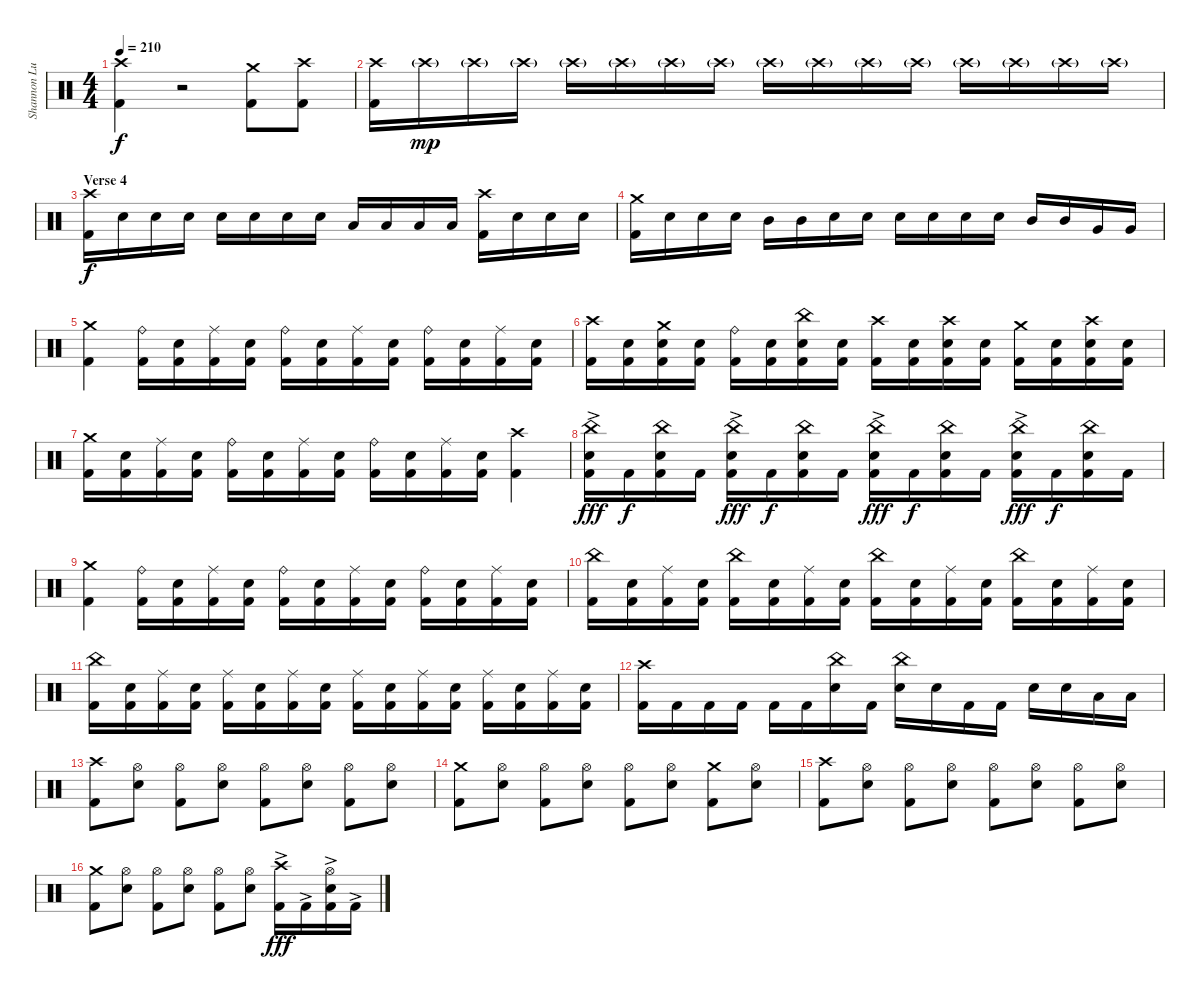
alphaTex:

\track ("Shannon Lucas [Drums (Since 2007)]" "Shannon Lu") {instrument percussion}
\staff {score}
\articulation defaults
\ts (4 4)
\tempo 210
\clef neutral
\ks c
("Crash high (hit)" "Kick (hit) 2").4{dy f} r.2 ("Crash medium (hit)" "Kick (hit) 2").8 ("Crash high (hit)" "Kick (hit) 2").8 |
("Crash high (hit)" "Kick (hit) 2").16 "Crash high (hit)"{g}.16{dy mp} "Crash high (hit)"{g}.16 "Crash high (hit)"{g}.16 "Crash high (hit)"{g}.16 "Crash high (hit)"{g}.16 "Crash high (hit)"{g}.16 "Crash high (hit)"{g}.16 "Crash high (hit)"{g}.16 "Crash high (hit)"{g}.16 "Crash high (hit)"{g}.16 "Crash high (hit)"{g}.16 "Crash high (hit)"{g}.16 "Crash high (hit)"{g}.16 "Crash high (hit)"{g}.16 "Crash high (hit)"{g}.16 |
\section ("" "Verse 4")
("Crash high (hit)" "Kick (hit) 2").16{dy f} "Snare (hit) 2".16 "Snare (hit) 2".16 "Snare (hit) 2".16 "Snare (hit) 2".16 "Snare (hit) 2".16 "Snare (hit) 2".16 "Snare (hit) 2".16 "Low Tom (hit)".16 "Low Tom (hit)".16 "Low Tom (hit)".16 "Low Tom (hit)".16 ("Crash high (hit)" "Kick (hit) 2").16 "Snare (hit) 2".16 "Snare (hit) 2".16 "Snare (hit) 2".16 |
("Crash medium (hit)" "Kick (hit) 2").16 "Snare (hit) 2".16 "Snare (hit) 2".16 "Snare (hit) 2".16 "Mid Tom (hit)".16 "Mid Tom (hit)".16 "Snare (hit) 2".16 "Snare (hit) 2".16 "Snare (hit) 2".16 "Snare (hit) 2".16 "Snare (hit) 2".16 "Snare (hit) 2".16 "Mid Tom (hit)".16 "Mid Tom (hit)".16 "Very Low Tom (hit)".16 "Very Low Tom (hit)".16 |
("Crash medium (hit)" "Kick (hit) 2").4 ("Ride (bell)" "Kick (hit) 2").16 ("Snare (hit) 2" "Kick (hit) 2").16 ("Ride (middle)" "Kick (hit) 2").16 ("Snare (hit) 2" "Kick (hit) 2").16 ("Ride (bell)" "Kick (hit) 2").16 ("Snare (hit) 2" "Kick (hit) 2").16 ("Ride (middle)" "Kick (hit) 2").16 ("Snare (hit) 2" "Kick (hit) 2").16 ("Ride (bell)" "Kick (hit) 2").16 ("Snare (hit) 2" "Kick (hit) 2").16 ("Ride (middle)" "Kick (hit) 2").16 ("Snare (hit) 2" "Kick (hit) 2").16 |
("Crash high (hit)" "Kick (hit) 2").16 ("Snare (hit) 2" "Kick (hit) 2").16 ("Crash medium (hit)" "Snare (hit) 2" "Kick (hit) 2").16 ("Snare (hit) 2" "Kick (hit) 2").16 ("Ride (bell)" "Kick (hit) 2").16 ("Snare (hit) 2" "Kick (hit) 2").16 ("China (hit)" "Snare (hit) 2" "Kick (hit) 2").16 ("Snare (hit) 2" "Kick (hit) 2").16 ("Crash high (hit)" "Kick (hit) 2").16 ("Snare (hit) 2" "Kick (hit) 2").16 ("Crash high (hit)" "Snare (hit) 2" "Kick (hit) 2").16 ("Snare (hit) 2" "Kick (hit) 2").16 ("Crash medium (hit)" "Kick (hit) 2").16 ("Snare (hit) 2" "Kick (hit) 2").16 ("Crash high (hit)" "Snare (hit) 2" "Kick (hit) 2").16 ("Snare (hit) 2" "Kick (hit) 2").16 |
("Crash medium (hit)" "Kick (hit) 2").16 ("Snare (hit) 2" "Kick (hit) 2").16 ("Ride (middle)" "Kick (hit) 2").16 ("Snare (hit) 2" "Kick (hit) 2").16 ("Ride (bell)" "Kick (hit) 2").16 ("Snare (hit) 2" "Kick (hit) 2").16 ("Ride (middle)" "Kick (hit) 2").16 ("Snare (hit) 2" "Kick (hit) 2").16 ("Ride (bell)" "Kick (hit) 2").16 ("Snare (hit) 2" "Kick (hit) 2").16 ("Ride (middle)" "Kick (hit) 2").16 ("Snare (hit) 2" "Kick (hit) 2").16 ("Crash high (hit)" "Kick (hit) 2").4 |
("China (hit)"{ac} "Snare (hit) 2" "Kick (hit) 2").16{dy fff} "Kick (hit) 2".16{dy f} ("China (hit)" "Snare (hit) 2" "Kick (hit) 2").16 "Kick (hit) 2".16 ("China (hit)"{ac} "Snare (hit) 2" "Kick (hit) 2").16{dy fff} "Kick (hit) 2".16{dy f} ("China (hit)" "Snare (hit) 2" "Kick (hit) 2").16 "Kick (hit) 2".16 ("China (hit)"{ac} "Snare (hit) 2" "Kick (hit) 2").16{dy fff} "Kick (hit) 2".16{dy f} ("China (hit)" "Snare (hit) 2" "Kick (hit) 2").16 "Kick (hit) 2".16 ("China (hit)"{ac} "Snare (hit) 2" "Kick (hit) 2").16{dy fff} "Kick (hit) 2".16{dy f} ("China (hit)" "Snare (hit) 2" "Kick (hit) 2").16 "Kick (hit) 2".16 |
("Crash medium (hit)" "Kick (hit) 2").4 ("Ride (bell)" "Kick (hit) 2").16 ("Snare (hit) 2" "Kick (hit) 2").16 ("Ride (middle)" "Kick (hit) 2").16 ("Snare (hit) 2" "Kick (hit) 2").16 ("Ride (bell)" "Kick (hit) 2").16 ("Snare (hit) 2" "Kick (hit) 2").16 ("Ride (middle)" "Kick (hit) 2").16 ("Snare (hit) 2" "Kick (hit) 2").16 ("Ride (bell)" "Kick (hit) 2").16 ("Snare (hit) 2" "Kick (hit) 2").16 ("Ride (middle)" "Kick (hit) 2").16 ("Snare (hit) 2" "Kick (hit) 2").16 |
("China (hit)" "Kick (hit) 2").16 ("Snare (hit) 2" "Kick (hit) 2").16 ("Ride (middle)" "Kick (hit) 2").16 ("Snare (hit) 2" "Kick (hit) 2").16 ("China (hit)" "Kick (hit) 2").16 ("Snare (hit) 2" "Kick (hit) 2").16 ("Ride (middle)" "Kick (hit) 2").16 ("Snare (hit) 2" "Kick (hit) 2").16 ("China (hit)" "Kick (hit) 2").16 ("Snare (hit) 2" "Kick (hit) 2").16 ("Ride (middle)" "Kick (hit) 2").16 ("Snare (hit) 2" "Kick (hit) 2").16 ("China (hit)" "Kick (hit) 2").16 ("Snare (hit) 2" "Kick (hit) 2").16 ("Ride (middle)" "Kick (hit) 2").16 ("Snare (hit) 2" "Kick (hit) 2").16 |
("China (hit)" "Kick (hit) 2").16 ("Snare (hit) 2" "Kick (hit) 2").16 ("Ride (middle)" "Kick (hit) 2").16 ("Snare (hit) 2" "Kick (hit) 2").16 ("Ride (middle)" "Kick (hit) 2").16 ("Snare (hit) 2" "Kick (hit) 2").16 ("Ride (middle)" "Kick (hit) 2").16 ("Snare (hit) 2" "Kick (hit) 2").16 ("Ride (middle)" "Kick (hit) 2").16 ("Snare (hit) 2" "Kick (hit) 2").16 ("Ride (middle)" "Kick (hit) 2").16 ("Snare (hit) 2" "Kick (hit) 2").16 ("Ride (middle)" "Kick (hit) 2").16 ("Snare (hit) 2" "Kick (hit) 2").16 ("Ride (middle)" "Kick (hit) 2").16 ("Snare (hit) 2" "Kick (hit) 2").16 |
("Crash high (hit)" "Kick (hit) 2").16 "Kick (hit) 2".16 "Kick (hit) 2".16 "Kick (hit) 2".16 "Kick (hit) 2".16 "Kick (hit) 2".16 ("China (hit)" "Snare (hit) 2").16 "Kick (hit) 2".16 ("China (hit)" "Snare (hit) 2").16 "Snare (hit) 2".16 "Kick (hit) 2".16 "Kick (hit) 2".16 "Snare (hit) 2".16 "Snare (hit) 2".16 "Low Tom (hit)".16 "Low Tom (hit)".16 |
("Crash high (hit)" "Kick (hit) 2").8 ("Hi-Hat (open)" "Snare (hit) 2").8 ("Hi-Hat (open)" "Kick (hit) 2").8 ("Hi-Hat (open)" "Snare (hit) 2").8 ("Hi-Hat (open)" "Kick (hit) 2").8 ("Hi-Hat (open)" "Snare (hit) 2").8 ("Hi-Hat (open)" "Kick (hit) 2").8 ("Hi-Hat (open)" "Snare (hit) 2").8 |
("Crash medium (hit)" "Kick (hit) 2").8 ("Hi-Hat (open)" "Snare (hit) 2").8 ("Hi-Hat (open)" "Kick (hit) 2").8 ("Hi-Hat (open)" "Snare (hit) 2").8 ("Hi-Hat (open)" "Kick (hit) 2").8 ("Hi-Hat (open)" "Snare (hit) 2").8 ("Crash medium (hit)" "Kick (hit) 2").8 ("Hi-Hat (open)" "Snare (hit) 2").8 |
("Crash high (hit)" "Kick (hit) 2").8 ("Hi-Hat (open)" "Snare (hit) 2").8 ("Hi-Hat (open)" "Kick (hit) 2").8 ("Hi-Hat (open)" "Snare (hit) 2").8 ("Hi-Hat (open)" "Kick (hit) 2").8 ("Hi-Hat (open)" "Snare (hit) 2").8 ("Hi-Hat (open)" "Kick (hit) 2").8 ("Hi-Hat (open)" "Snare (hit) 2").8 |
("Crash medium (hit)" "Kick (hit) 2").8 ("Hi-Hat (open)" "Snare (hit) 2").8 ("Hi-Hat (open)" "Kick (hit) 2").8 ("Hi-Hat (open)" "Snare (hit) 2").8 ("Hi-Hat (open)" "Kick (hit) 2").8 ("Hi-Hat (open)" "Snare (hit) 2").8 ("Crash high (hit)" "Kick (hit) 2"{ac}).16{dy fff} "Kick (hit) 2"{ac}.16 ("Hi-Hat (open)" "Snare (hit) 2" "Kick (hit) 2"{ac}).16 "Kick (hit) 2"{ac}.16
